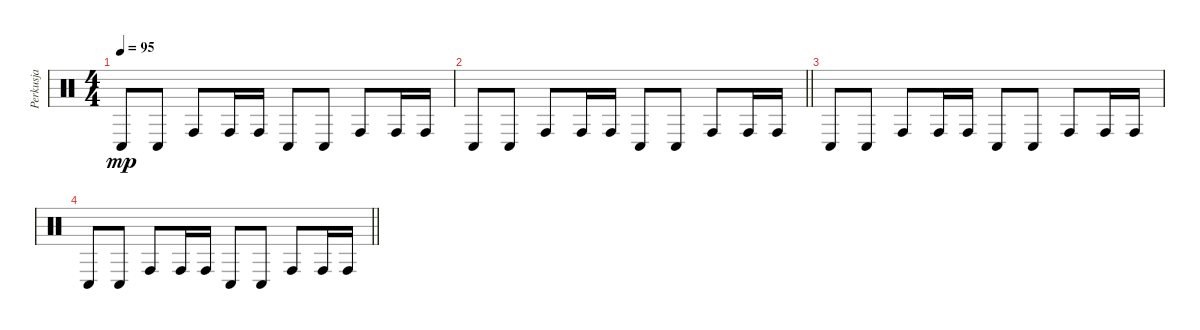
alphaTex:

\track ("Perkusja" "Perkusja") {instrument percussion}
\staff {score}
\articulation defaults
\ts (4 4)
\tempo 95
\clef neutral
\ks c "Conga low (hit)".8{dy mp} "Conga low (hit)".8 "Conga high (hit)".8 "Conga high (hit)".16 "Conga high (hit)".16 "Conga low (hit)".8 "Conga low (hit)".8 "Conga high (hit)".8 "Conga high (hit)".16 "Conga high (hit)".16
|
\barLineRight lightlight "Conga low (hit)".8 "Conga low (hit)".8 "Conga high (hit)".8 "Conga high (hit)".16 "Conga high (hit)".16 "Conga low (hit)".8 "Conga low (hit)".8 "Conga high (hit)".8 "Conga high (hit)".16 "Conga high (hit)".16
|
"Conga low (hit)".8 "Conga low (hit)".8 "Conga high (hit)".8 "Conga high (hit)".16 "Conga high (hit)".16 "Conga low (hit)".8 "Conga low (hit)".8 "Conga high (hit)".8 "Conga high (hit)".16 "Conga high (hit)".16 |
\barLineRight lightlight "Conga low (hit)".8 "Conga low (hit)".8 "Conga high (hit)".8 "Conga high (hit)".16 "Conga high (hit)".16 "Conga low (hit)".8 "Conga low (hit)".8 "Conga high (hit)".8 "Conga high (hit)".16 "Conga high (hit)".16
